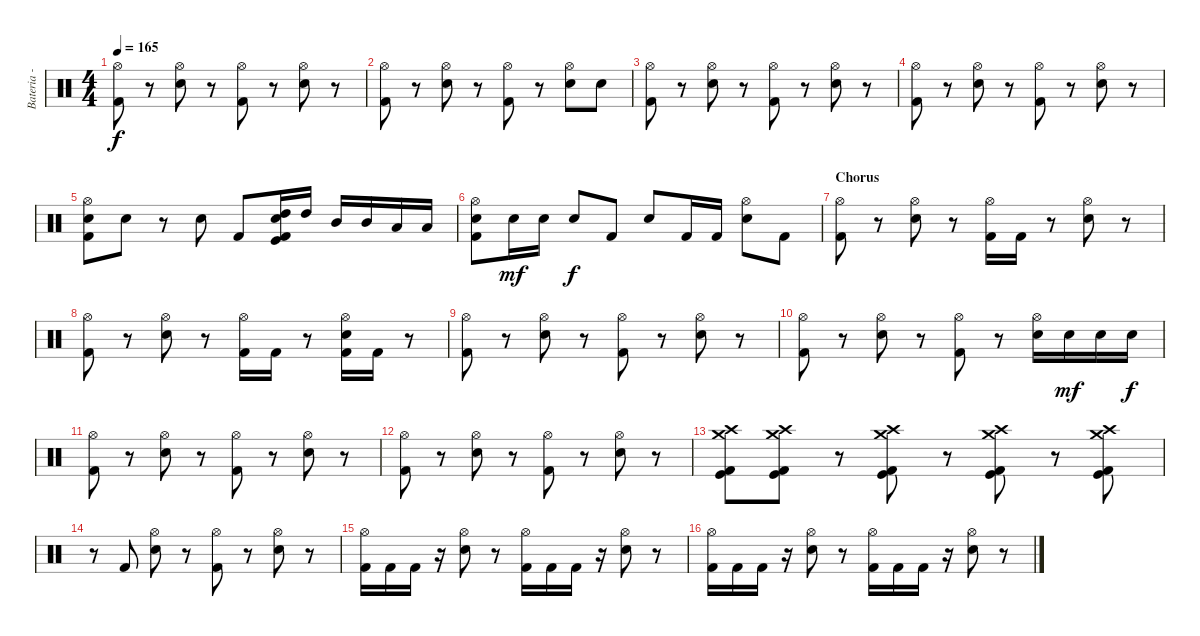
\track ("Bateria - Drums" "Bateria - ") {instrument percussion}
\staff {score}
\articulation defaults
\ts (4 4)
\tempo 165
\clef neutral
\ks c
("Hi-Hat (open)" "Kick (hit) 2").8{dy f} r.8 ("Hi-Hat (open)" "Electric Snare (hit)").8 r.8 ("Hi-Hat (open)" "Kick (hit) 2").8 r.8 ("Hi-Hat (open)" "Electric Snare (hit)").8 r.8 |
("Hi-Hat (open)" "Kick (hit) 2").8 r.8 ("Hi-Hat (open)" "Electric Snare (hit)").8 r.8 ("Hi-Hat (open)" "Kick (hit) 2").8 r.8 ("Hi-Hat (open)" "Electric Snare (hit)").8 "Electric Snare (hit)".8 |
("Hi-Hat (open)" "Kick (hit) 2").8 r.8 ("Hi-Hat (open)" "Electric Snare (hit)").8 r.8 ("Hi-Hat (open)" "Kick (hit) 2").8 r.8 ("Hi-Hat (open)" "Electric Snare (hit)").8 r.8 |
("Hi-Hat (open)" "Kick (hit) 2").8 r.8 ("Hi-Hat (open)" "Electric Snare (hit)").8 r.8 ("Hi-Hat (open)" "Kick (hit) 2").8 r.8 ("Hi-Hat (open)" "Electric Snare (hit)").8 r.8 |
("Hi-Hat (open)" "Snare (hit) 2" "Kick (hit) 2").8 "Snare (hit) 2".8 r.8 "Snare (hit) 2".8 "Kick (hit) 2".8 ("High Tom (hit)" "Electric Snare (hit)" "Kick (hit)" "Kick (hit) 2").16 "High Tom (hit)".16 "Mid Tom (hit)".16 "Mid Tom (hit)".16 "Low Tom (hit)".16 "Low Tom (hit)".16 |
("Hi-Hat (open)" "Snare (hit) 2" "Kick (hit) 2").8 "Snare (hit) 2".16{dy mf} "Snare (hit) 2".16 "Snare (hit) 2".8{dy f} "Kick (hit) 2".8 "Electric Snare (hit)".8 "Kick (hit) 2".16 "Kick (hit) 2".16 ("Hi-Hat (open)" "Electric Snare (hit)").8 "Kick (hit) 2".8 |
\section ("" "Chorus")
("Hi-Hat (open)" "Kick (hit) 2").8 r.8 ("Hi-Hat (open)" "Electric Snare (hit)").8 r.8 ("Hi-Hat (open)" "Kick (hit) 2").16 "Kick (hit) 2".16 r.8 ("Hi-Hat (open)" "Electric Snare (hit)").8 r.8 |
("Hi-Hat (open)" "Kick (hit) 2").8 r.8 ("Hi-Hat (open)" "Electric Snare (hit)").8 r.8 ("Hi-Hat (open)" "Kick (hit) 2").16 "Kick (hit) 2".16 r.8 ("Hi-Hat (open)" "Electric Snare (hit)" "Kick (hit) 2").16 "Kick (hit) 2".16 r.8 |
("Hi-Hat (open)" "Kick (hit) 2").8 r.8 ("Hi-Hat (open)" "Electric Snare (hit)").8 r.8 ("Hi-Hat (open)" "Kick (hit) 2").8 r.8 ("Hi-Hat (open)" "Electric Snare (hit)").8 r.8 |
("Hi-Hat (open)" "Kick (hit) 2").8 r.8 ("Hi-Hat (open)" "Electric Snare (hit)").8 r.8 ("Hi-Hat (open)" "Kick (hit) 2").8 r.8 ("Hi-Hat (open)" "Electric Snare (hit)").16 "Electric Snare (hit)".16{dy mf} "Electric Snare (hit)".16 "Electric Snare (hit)".16{dy f} |
("Hi-Hat (open)" "Kick (hit) 2").8 r.8 ("Hi-Hat (open)" "Electric Snare (hit)").8 r.8 ("Hi-Hat (open)" "Kick (hit) 2").8 r.8 ("Hi-Hat (open)" "Electric Snare (hit)").8 r.8 |
("Hi-Hat (open)" "Kick (hit) 2").8 r.8 ("Hi-Hat (open)" "Electric Snare (hit)").8 r.8 ("Hi-Hat (open)" "Kick (hit) 2").8 r.8 ("Hi-Hat (open)" "Electric Snare (hit)").8 r.8 |
("Crash medium (hit)" "Crash high (hit)" "Kick (hit)" "Kick (hit) 2").8 ("Crash medium (hit)" "Crash high (hit)" "Kick (hit)" "Kick (hit) 2").8 r.8 ("Crash medium (hit)" "Crash high (hit)" "Kick (hit)" "Kick (hit) 2").8 r.8 ("Crash medium (hit)" "Crash high (hit)" "Kick (hit)" "Kick (hit) 2").8 r.8 ("Crash medium (hit)" "Crash high (hit)" "Kick (hit)" "Kick (hit) 2").8 |
r.8 "Kick (hit) 2".8 ("Hi-Hat (open)" "Electric Snare (hit)").8 r.8 ("Hi-Hat (open)" "Kick (hit) 2").8 r.8 ("Hi-Hat (open)" "Electric Snare (hit)").8 r.8 |
("Hi-Hat (open)" "Kick (hit) 2").16 "Kick (hit) 2".16 "Kick (hit) 2".16 r.16 ("Hi-Hat (open)" "Electric Snare (hit)").8 r.8 ("Hi-Hat (open)" "Kick (hit) 2").16 "Kick (hit) 2".16 "Kick (hit) 2".16 r.16 ("Hi-Hat (open)" "Electric Snare (hit)").8 r.8 |
("Hi-Hat (open)" "Kick (hit) 2").16 "Kick (hit) 2".16 "Kick (hit) 2".16 r.16 ("Hi-Hat (open)" "Electric Snare (hit)").8 r.8 ("Hi-Hat (open)" "Kick (hit) 2").16 "Kick (hit) 2".16 "Kick (hit) 2".16 r.16 ("Hi-Hat (open)" "Electric Snare (hit)").8 r.8
